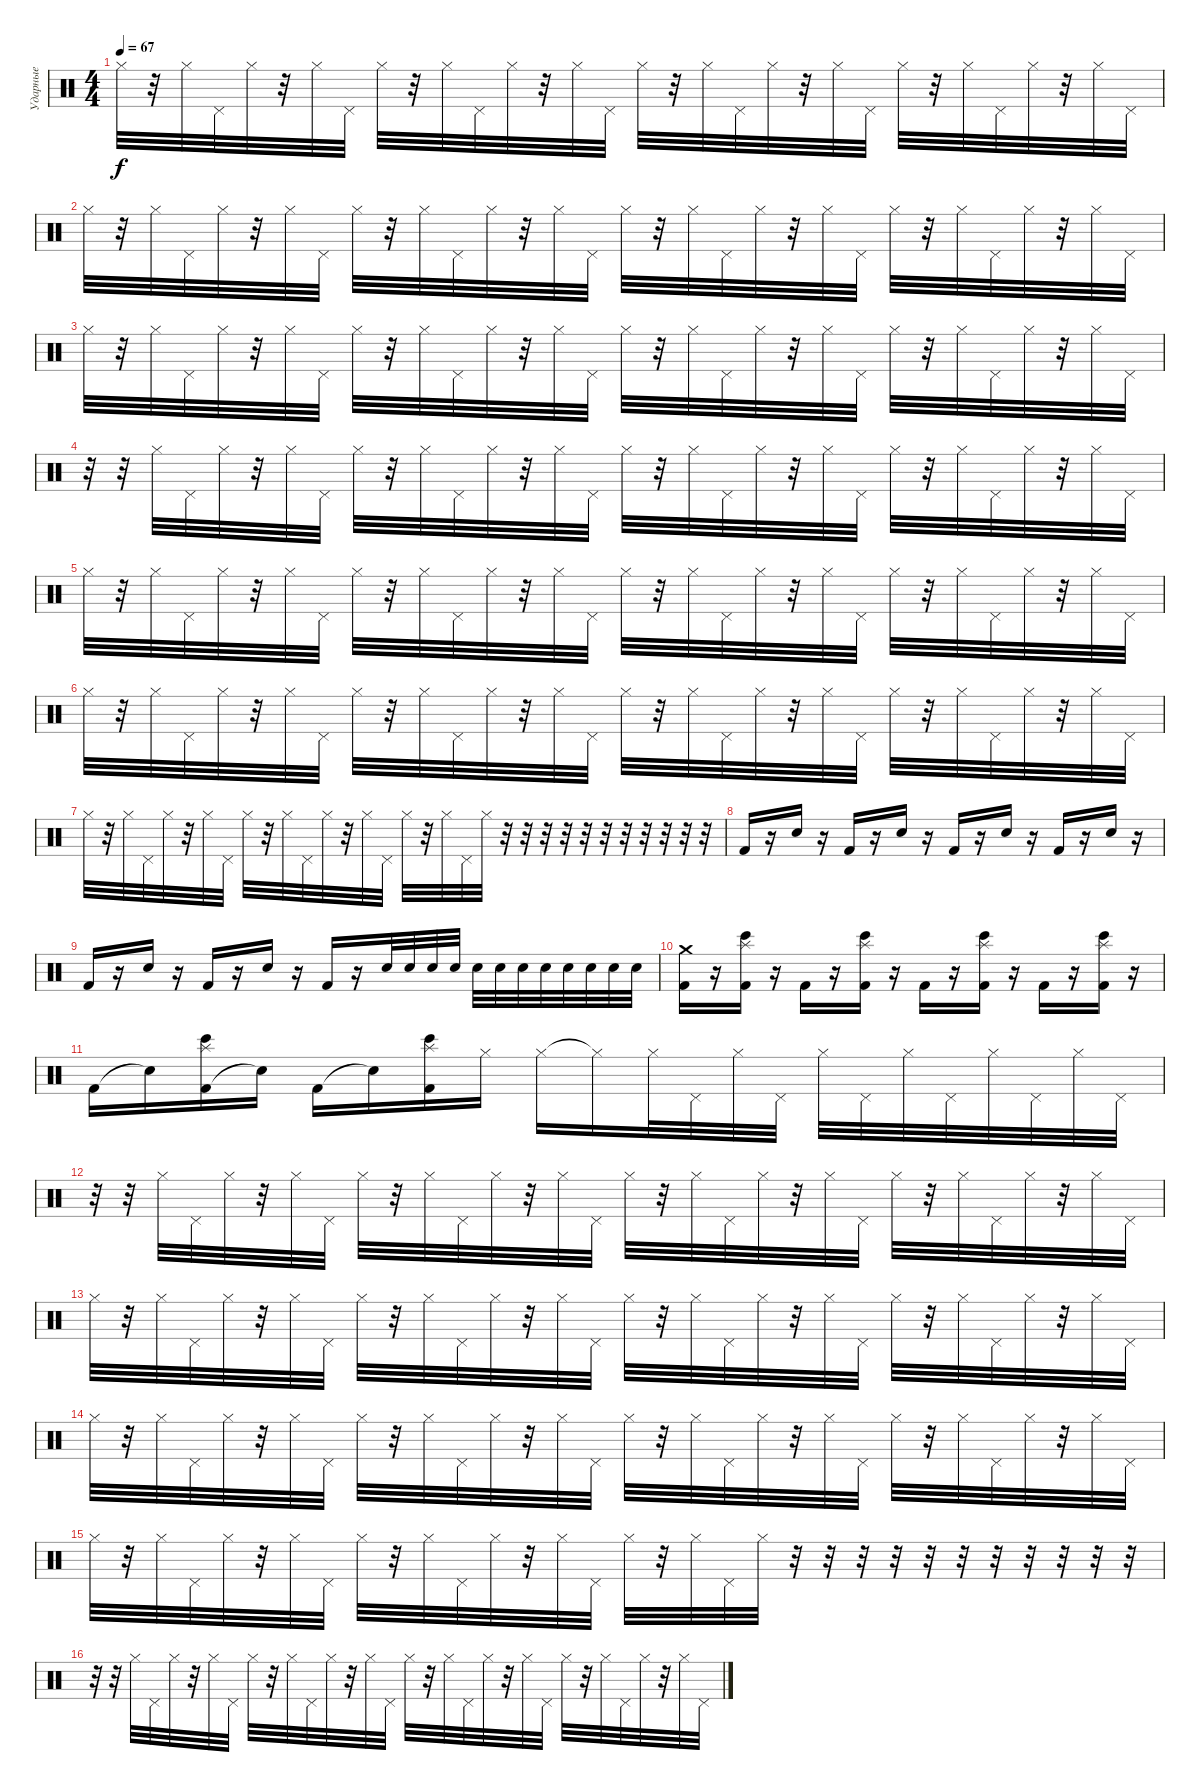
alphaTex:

\track ("Ударные" "Ударные") {instrument percussion}
\staff {score}
\articulation defaults
\ts (4 4)
\tempo 67
\clef neutral
\ks c "Hi-Hat (closed)".32{dy f}
r.32 "Hi-Hat (closed)".32 "Pedal Hi-Hat (hit)".32 "Hi-Hat (closed)".32 r.32 "Hi-Hat (closed)".32 "Pedal Hi-Hat (hit)".32 "Hi-Hat (closed)".32 r.32 "Hi-Hat (closed)".32 "Pedal Hi-Hat (hit)".32 "Hi-Hat (closed)".32 r.32 "Hi-Hat (closed)".32 "Pedal Hi-Hat (hit)".32 "Hi-Hat (closed)".32 r.32 "Hi-Hat (closed)".32 "Pedal Hi-Hat (hit)".32 "Hi-Hat (closed)".32 r.32 "Hi-Hat (closed)".32 "Pedal Hi-Hat (hit)".32 "Hi-Hat (closed)".32 r.32 "Hi-Hat (closed)".32 "Pedal Hi-Hat (hit)".32 "Hi-Hat (closed)".32 r.32 "Hi-Hat (closed)".32 "Pedal Hi-Hat (hit)".32 |
"Hi-Hat (closed)".32 r.32 "Hi-Hat (closed)".32 "Pedal Hi-Hat (hit)".32 "Hi-Hat (closed)".32 r.32 "Hi-Hat (closed)".32 "Pedal Hi-Hat (hit)".32 "Hi-Hat (closed)".32 r.32 "Hi-Hat (closed)".32 "Pedal Hi-Hat (hit)".32 "Hi-Hat (closed)".32 r.32 "Hi-Hat (closed)".32 "Pedal Hi-Hat (hit)".32 "Hi-Hat (closed)".32 r.32 "Hi-Hat (closed)".32 "Pedal Hi-Hat (hit)".32 "Hi-Hat (closed)".32 r.32 "Hi-Hat (closed)".32 "Pedal Hi-Hat (hit)".32 "Hi-Hat (closed)".32 r.32 "Hi-Hat (closed)".32 "Pedal Hi-Hat (hit)".32 "Hi-Hat (closed)".32 r.32 "Hi-Hat (closed)".32 "Pedal Hi-Hat (hit)".32 |
"Hi-Hat (closed)".32 r.32 "Hi-Hat (closed)".32 "Pedal Hi-Hat (hit)".32 "Hi-Hat (closed)".32 r.32 "Hi-Hat (closed)".32 "Pedal Hi-Hat (hit)".32 "Hi-Hat (closed)".32 r.32 "Hi-Hat (closed)".32 "Pedal Hi-Hat (hit)".32 "Hi-Hat (closed)".32 r.32 "Hi-Hat (closed)".32 "Pedal Hi-Hat (hit)".32 "Hi-Hat (closed)".32 r.32 "Hi-Hat (closed)".32 "Pedal Hi-Hat (hit)".32 "Hi-Hat (closed)".32 r.32 "Hi-Hat (closed)".32 "Pedal Hi-Hat (hit)".32 "Hi-Hat (closed)".32 r.32 "Hi-Hat (closed)".32 "Pedal Hi-Hat (hit)".32 "Hi-Hat (closed)".32 r.32 "Hi-Hat (closed)".32 "Pedal Hi-Hat (hit)".32 |
r.32 r.32 "Hi-Hat (closed)".32 "Pedal Hi-Hat (hit)".32 "Hi-Hat (closed)".32 r.32 "Hi-Hat (closed)".32 "Pedal Hi-Hat (hit)".32 "Hi-Hat (closed)".32 r.32 "Hi-Hat (closed)".32 "Pedal Hi-Hat (hit)".32 "Hi-Hat (closed)".32 r.32 "Hi-Hat (closed)".32 "Pedal Hi-Hat (hit)".32 "Hi-Hat (closed)".32 r.32 "Hi-Hat (closed)".32 "Pedal Hi-Hat (hit)".32 "Hi-Hat (closed)".32 r.32 "Hi-Hat (closed)".32 "Pedal Hi-Hat (hit)".32 "Hi-Hat (closed)".32 r.32 "Hi-Hat (closed)".32 "Pedal Hi-Hat (hit)".32 "Hi-Hat (closed)".32 r.32 "Hi-Hat (closed)".32 "Pedal Hi-Hat (hit)".32 |
"Hi-Hat (closed)".32 r.32 "Hi-Hat (closed)".32 "Pedal Hi-Hat (hit)".32 "Hi-Hat (closed)".32 r.32 "Hi-Hat (closed)".32 "Pedal Hi-Hat (hit)".32 "Hi-Hat (closed)".32 r.32 "Hi-Hat (closed)".32 "Pedal Hi-Hat (hit)".32 "Hi-Hat (closed)".32 r.32 "Hi-Hat (closed)".32 "Pedal Hi-Hat (hit)".32 "Hi-Hat (closed)".32 r.32 "Hi-Hat (closed)".32 "Pedal Hi-Hat (hit)".32 "Hi-Hat (closed)".32 r.32 "Hi-Hat (closed)".32 "Pedal Hi-Hat (hit)".32 "Hi-Hat (closed)".32 r.32 "Hi-Hat (closed)".32 "Pedal Hi-Hat (hit)".32 "Hi-Hat (closed)".32 r.32 "Hi-Hat (closed)".32 "Pedal Hi-Hat (hit)".32 |
"Hi-Hat (closed)".32 r.32 "Hi-Hat (closed)".32 "Pedal Hi-Hat (hit)".32 "Hi-Hat (closed)".32 r.32 "Hi-Hat (closed)".32 "Pedal Hi-Hat (hit)".32 "Hi-Hat (closed)".32 r.32 "Hi-Hat (closed)".32 "Pedal Hi-Hat (hit)".32 "Hi-Hat (closed)".32 r.32 "Hi-Hat (closed)".32 "Pedal Hi-Hat (hit)".32 "Hi-Hat (closed)".32 r.32 "Hi-Hat (closed)".32 "Pedal Hi-Hat (hit)".32 "Hi-Hat (closed)".32 r.32 "Hi-Hat (closed)".32 "Pedal Hi-Hat (hit)".32 "Hi-Hat (closed)".32 r.32 "Hi-Hat (closed)".32 "Pedal Hi-Hat (hit)".32 "Hi-Hat (closed)".32 r.32 "Hi-Hat (closed)".32 "Pedal Hi-Hat (hit)".32 |
"Hi-Hat (closed)".32 r.32 "Hi-Hat (closed)".32 "Pedal Hi-Hat (hit)".32 "Hi-Hat (closed)".32 r.32 "Hi-Hat (closed)".32 "Pedal Hi-Hat (hit)".32 "Hi-Hat (closed)".32 r.32 "Hi-Hat (closed)".32 "Pedal Hi-Hat (hit)".32 "Hi-Hat (closed)".32 r.32 "Hi-Hat (closed)".32 "Pedal Hi-Hat (hit)".32 "Hi-Hat (closed)".32 r.32 "Hi-Hat (closed)".32 "Pedal Hi-Hat (hit)".32 "Hi-Hat (closed)".32 r.32 r.32 r.32 r.32 r.32 r.32 r.32 r.32 r.32 r.32 r.32 |
"Kick (hit) 2".16 r.16 "Hand Clap (hit)".16 r.16 "Kick (hit) 2".16 r.16 "Hand Clap (hit)".16 r.16 "Kick (hit) 2".16 r.16 "Hand Clap (hit)".16 r.16 "Kick (hit) 2".16 r.16 "Hand Clap (hit)".16 r.16 |
"Kick (hit) 2".16 r.16 "Hand Clap (hit)".16 r.16 "Kick (hit) 2".16 r.16 "Hand Clap (hit)".16 r.16 "Kick (hit) 2".16 r.16 "Hand Clap (hit)".32 "Hand Clap (hit)".32 "Hand Clap (hit)".32 "Hand Clap (hit)".32 "Hand Clap (hit)".32 "Hand Clap (hit)".32 "Hand Clap (hit)".32 "Hand Clap (hit)".32 "Hand Clap (hit)".32 "Hand Clap (hit)".32 "Hand Clap (hit)".32 "Hand Clap (hit)".32 |
("Kick (hit) 2" "Crash medium (hit)").16 r.16 ("Kick (hit) 2" "Bongo High (hit)" "Splash (hit)").16 r.16 "Kick (hit) 2".16 r.16 ("Kick (hit) 2" "Bongo High (hit)" "Splash (hit)").16 r.16 "Kick (hit) 2".16 r.16 ("Kick (hit) 2" "Bongo High (hit)" "Splash (hit)").16 r.16 "Kick (hit) 2".16 r.16 ("Kick (hit) 2" "Bongo High (hit)" "Splash (hit)").16 r.16 |
"Kick (hit) 2".16 "Snare (hit)"{t}.16 ("Kick (hit) 2" "Bongo High (hit)" "Splash (hit)").16 "Snare (hit)"{t}.16 "Kick (hit) 2".16 "Snare (hit)"{t}.16 ("Kick (hit) 2" "Bongo High (hit)" "Splash (hit)").16 "Hi-Hat (closed)".16 "Hi-Hat (closed)".16 "Hi-Hat (closed)"{t}.16 "Hi-Hat (closed)".32 "Pedal Hi-Hat (hit)".32 "Hi-Hat (closed)".32 "Pedal Hi-Hat (hit)".32 "Hi-Hat (closed)".32 "Pedal Hi-Hat (hit)".32 "Hi-Hat (closed)".32 "Pedal Hi-Hat (hit)".32 "Hi-Hat (closed)".32 "Pedal Hi-Hat (hit)".32 "Hi-Hat (closed)".32 "Pedal Hi-Hat (hit)".32 |
r.32 r.32 "Hi-Hat (closed)".32 "Pedal Hi-Hat (hit)".32 "Hi-Hat (closed)".32 r.32 "Hi-Hat (closed)".32 "Pedal Hi-Hat (hit)".32 "Hi-Hat (closed)".32 r.32 "Hi-Hat (closed)".32 "Pedal Hi-Hat (hit)".32 "Hi-Hat (closed)".32 r.32 "Hi-Hat (closed)".32 "Pedal Hi-Hat (hit)".32 "Hi-Hat (closed)".32 r.32 "Hi-Hat (closed)".32 "Pedal Hi-Hat (hit)".32 "Hi-Hat (closed)".32 r.32 "Hi-Hat (closed)".32 "Pedal Hi-Hat (hit)".32 "Hi-Hat (closed)".32 r.32 "Hi-Hat (closed)".32 "Pedal Hi-Hat (hit)".32 "Hi-Hat (closed)".32 r.32 "Hi-Hat (closed)".32 "Pedal Hi-Hat (hit)".32 |
"Hi-Hat (closed)".32 r.32 "Hi-Hat (closed)".32 "Pedal Hi-Hat (hit)".32 "Hi-Hat (closed)".32 r.32 "Hi-Hat (closed)".32 "Pedal Hi-Hat (hit)".32 "Hi-Hat (closed)".32 r.32 "Hi-Hat (closed)".32 "Pedal Hi-Hat (hit)".32 "Hi-Hat (closed)".32 r.32 "Hi-Hat (closed)".32 "Pedal Hi-Hat (hit)".32 "Hi-Hat (closed)".32 r.32 "Hi-Hat (closed)".32 "Pedal Hi-Hat (hit)".32 "Hi-Hat (closed)".32 r.32 "Hi-Hat (closed)".32 "Pedal Hi-Hat (hit)".32 "Hi-Hat (closed)".32 r.32 "Hi-Hat (closed)".32 "Pedal Hi-Hat (hit)".32 "Hi-Hat (closed)".32 r.32 "Hi-Hat (closed)".32 "Pedal Hi-Hat (hit)".32 |
"Hi-Hat (closed)".32 r.32 "Hi-Hat (closed)".32 "Pedal Hi-Hat (hit)".32 "Hi-Hat (closed)".32 r.32 "Hi-Hat (closed)".32 "Pedal Hi-Hat (hit)".32 "Hi-Hat (closed)".32 r.32 "Hi-Hat (closed)".32 "Pedal Hi-Hat (hit)".32 "Hi-Hat (closed)".32 r.32 "Hi-Hat (closed)".32 "Pedal Hi-Hat (hit)".32 "Hi-Hat (closed)".32 r.32 "Hi-Hat (closed)".32 "Pedal Hi-Hat (hit)".32 "Hi-Hat (closed)".32 r.32 "Hi-Hat (closed)".32 "Pedal Hi-Hat (hit)".32 "Hi-Hat (closed)".32 r.32 "Hi-Hat (closed)".32 "Pedal Hi-Hat (hit)".32 "Hi-Hat (closed)".32 r.32 "Hi-Hat (closed)".32 "Pedal Hi-Hat (hit)".32 |
"Hi-Hat (closed)".32 r.32 "Hi-Hat (closed)".32 "Pedal Hi-Hat (hit)".32 "Hi-Hat (closed)".32 r.32 "Hi-Hat (closed)".32 "Pedal Hi-Hat (hit)".32 "Hi-Hat (closed)".32 r.32 "Hi-Hat (closed)".32 "Pedal Hi-Hat (hit)".32 "Hi-Hat (closed)".32 r.32 "Hi-Hat (closed)".32 "Pedal Hi-Hat (hit)".32 "Hi-Hat (closed)".32 r.32 "Hi-Hat (closed)".32 "Pedal Hi-Hat (hit)".32 "Hi-Hat (closed)".32 r.32 r.32 r.32 r.32 r.32 r.32 r.32 r.32 r.32 r.32 r.32 |
r.32 r.32 "Hi-Hat (closed)".32 "Pedal Hi-Hat (hit)".32 "Hi-Hat (closed)".32 r.32 "Hi-Hat (closed)".32 "Pedal Hi-Hat (hit)".32 "Hi-Hat (closed)".32 r.32 "Hi-Hat (closed)".32 "Pedal Hi-Hat (hit)".32 "Hi-Hat (closed)".32 r.32 "Hi-Hat (closed)".32 "Pedal Hi-Hat (hit)".32 "Hi-Hat (closed)".32 r.32 "Hi-Hat (closed)".32 "Pedal Hi-Hat (hit)".32 "Hi-Hat (closed)".32 r.32 "Hi-Hat (closed)".32 "Pedal Hi-Hat (hit)".32 "Hi-Hat (closed)".32 r.32 "Hi-Hat (closed)".32 "Pedal Hi-Hat (hit)".32 "Hi-Hat (closed)".32 r.32 "Hi-Hat (closed)".32 "Pedal Hi-Hat (hit)".32
